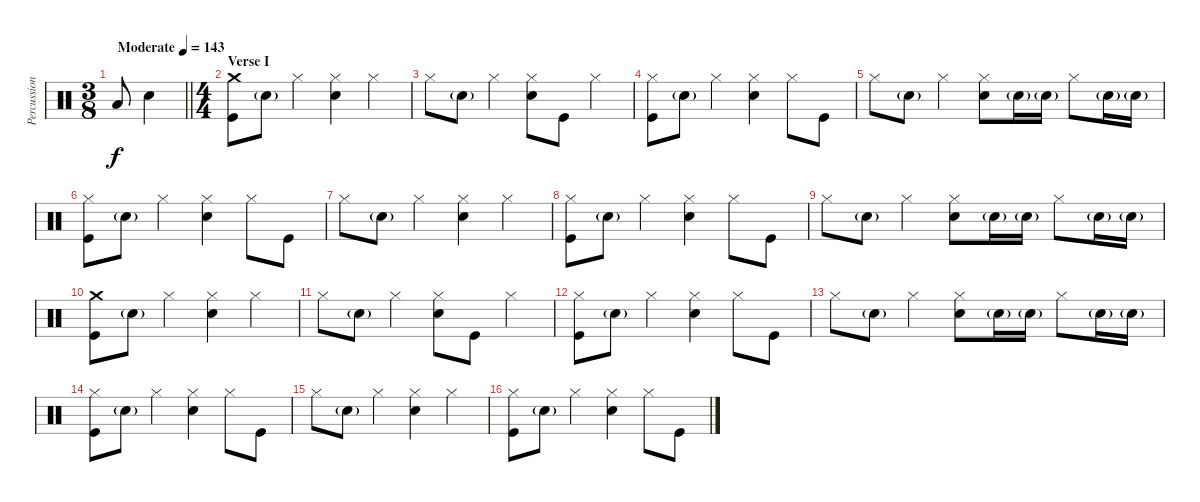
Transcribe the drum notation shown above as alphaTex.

\track ("Percussion" "Percussion") {instrument percussion}
\staff {score}
\articulation defaults
\ts (3 8)
\tempo (143 "Moderate")
\clef neutral
\barLineRight lightlight
\ks c "Low Tom (hit)".8{dy f} "Electric Snare (hit)".4
|
\ts (4 4)
\section ("" "Verse I")
("Crash medium (hit)" "Kick (hit)").8 "Electric Snare (hit)"{g}.8 "Hi-Hat (closed)".4 ("Hi-Hat (closed)" "Electric Snare (hit)").4 "Hi-Hat (closed)".4 |
"Hi-Hat (closed)".8 "Electric Snare (hit)"{g}.8 "Hi-Hat (closed)".4 ("Hi-Hat (closed)" "Electric Snare (hit)").8 "Kick (hit)".8 "Hi-Hat (closed)".4 |
("Hi-Hat (closed)" "Kick (hit)").8 "Electric Snare (hit)"{g}.8 "Hi-Hat (closed)".4 ("Hi-Hat (closed)" "Electric Snare (hit)").4 "Hi-Hat (closed)".8 "Kick (hit)".8 |
"Hi-Hat (closed)".8 "Electric Snare (hit)"{g}.8 "Hi-Hat (closed)".4 ("Hi-Hat (closed)" "Electric Snare (hit)").8 "Electric Snare (hit)"{g}.16 "Electric Snare (hit)"{g}.16 "Hi-Hat (closed)".8 "Electric Snare (hit)"{g}.16 "Electric Snare (hit)"{g}.16 |
("Hi-Hat (closed)" "Kick (hit)").8 "Electric Snare (hit)"{g}.8 "Hi-Hat (closed)".4 ("Hi-Hat (closed)" "Electric Snare (hit)").4 "Hi-Hat (closed)".8 "Kick (hit)".8 |
"Hi-Hat (closed)".8 "Electric Snare (hit)"{g}.8 "Hi-Hat (closed)".4 ("Hi-Hat (closed)" "Electric Snare (hit)").4 "Hi-Hat (closed)".4 |
("Hi-Hat (closed)" "Kick (hit)").8 "Electric Snare (hit)"{g}.8 "Hi-Hat (closed)".4 ("Hi-Hat (closed)" "Electric Snare (hit)").4 "Hi-Hat (closed)".8 "Kick (hit)".8 |
"Hi-Hat (closed)".8 "Electric Snare (hit)"{g}.8 "Hi-Hat (closed)".4 ("Hi-Hat (closed)" "Electric Snare (hit)").8 "Electric Snare (hit)"{g}.16 "Electric Snare (hit)"{g}.16 "Hi-Hat (closed)".8 "Electric Snare (hit)"{g}.16 "Electric Snare (hit)"{g}.16 |
("Crash medium (hit)" "Kick (hit)").8 "Electric Snare (hit)"{g}.8 "Hi-Hat (closed)".4 ("Hi-Hat (closed)" "Electric Snare (hit)").4 "Hi-Hat (closed)".4 |
"Hi-Hat (closed)".8 "Electric Snare (hit)"{g}.8 "Hi-Hat (closed)".4 ("Hi-Hat (closed)" "Electric Snare (hit)").8 "Kick (hit)".8 "Hi-Hat (closed)".4 |
("Hi-Hat (closed)" "Kick (hit)").8 "Electric Snare (hit)"{g}.8 "Hi-Hat (closed)".4 ("Hi-Hat (closed)" "Electric Snare (hit)").4 "Hi-Hat (closed)".8 "Kick (hit)".8 |
"Hi-Hat (closed)".8 "Electric Snare (hit)"{g}.8 "Hi-Hat (closed)".4 ("Hi-Hat (closed)" "Electric Snare (hit)").8 "Electric Snare (hit)"{g}.16 "Electric Snare (hit)"{g}.16 "Hi-Hat (closed)".8 "Electric Snare (hit)"{g}.16 "Electric Snare (hit)"{g}.16 |
("Hi-Hat (closed)" "Kick (hit)").8 "Electric Snare (hit)"{g}.8 "Hi-Hat (closed)".4 ("Hi-Hat (closed)" "Electric Snare (hit)").4 "Hi-Hat (closed)".8 "Kick (hit)".8 |
"Hi-Hat (closed)".8 "Electric Snare (hit)"{g}.8 "Hi-Hat (closed)".4 ("Hi-Hat (closed)" "Electric Snare (hit)").4 "Hi-Hat (closed)".4 |
("Hi-Hat (closed)" "Kick (hit)").8 "Electric Snare (hit)"{g}.8 "Hi-Hat (closed)".4 ("Hi-Hat (closed)" "Electric Snare (hit)").4 "Hi-Hat (closed)".8 "Kick (hit)".8
